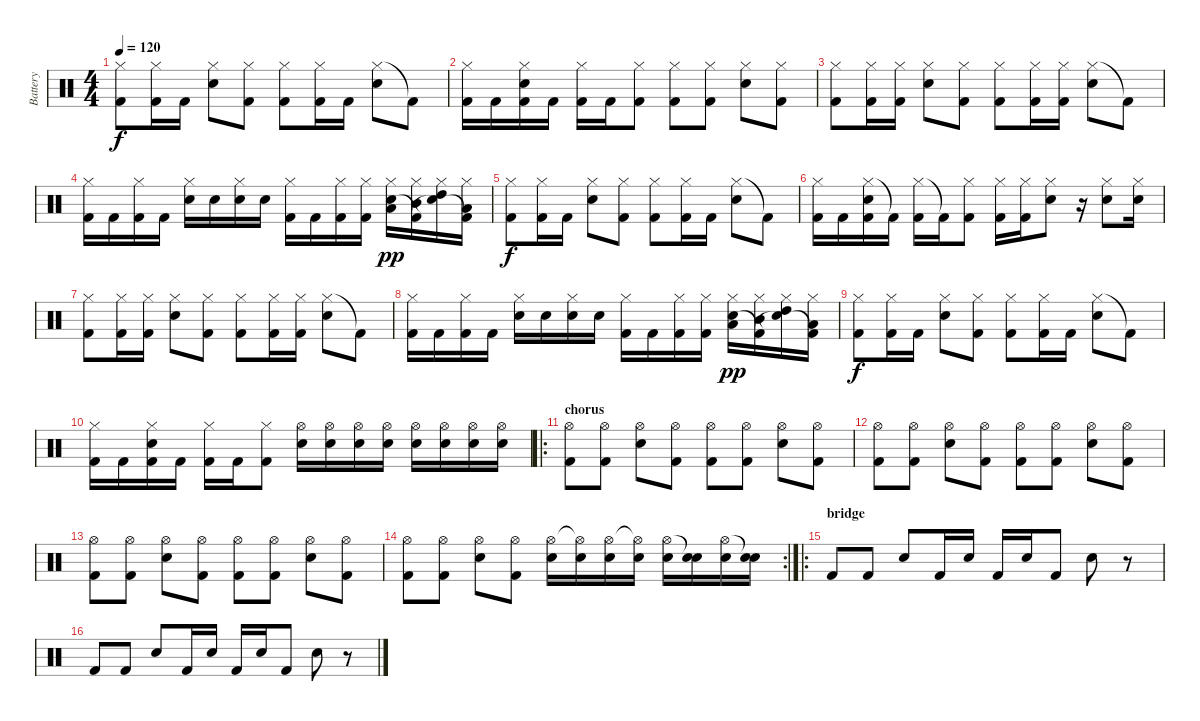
\track ("Battery" "Battery") {instrument percussion}
\staff {score}
\articulation defaults
\ts (4 4)
\tempo 120
\clef neutral
\ks c
("Hi-Hat (closed)" "Kick (hit) 2").8{dy f} ("Hi-Hat (closed)" "Kick (hit) 2").16 "Kick (hit) 2".16 ("Hi-Hat (closed)" "Electric Snare (hit)").8 ("Hi-Hat (closed)" "Kick (hit) 2").8 ("Hi-Hat (closed)" "Kick (hit) 2").8 ("Hi-Hat (closed)" "Kick (hit) 2").16 "Kick (hit) 2".16 ("Hi-Hat (closed)" "Electric Snare (hit)").8 "Kick (hit) 2"{t}.8 |
("Hi-Hat (closed)" "Kick (hit) 2").16 "Kick (hit) 2".16 ("Hi-Hat (closed)" "Electric Snare (hit)" "Kick (hit) 2").16 "Kick (hit) 2".16 ("Hi-Hat (closed)" "Kick (hit) 2").16 "Kick (hit) 2".16 ("Hi-Hat (closed)" "Kick (hit) 2").8 ("Hi-Hat (closed)" "Kick (hit) 2").8 ("Hi-Hat (closed)" "Kick (hit) 2").8 ("Hi-Hat (closed)" "Electric Snare (hit)").8 ("Hi-Hat (closed)" "Kick (hit) 2").8 |
("Hi-Hat (closed)" "Kick (hit) 2").8 ("Hi-Hat (closed)" "Kick (hit) 2").16 ("Hi-Hat (closed)" "Kick (hit) 2").16 ("Hi-Hat (closed)" "Electric Snare (hit)").8 ("Hi-Hat (closed)" "Kick (hit) 2").8 ("Hi-Hat (closed)" "Kick (hit) 2").8 ("Hi-Hat (closed)" "Kick (hit) 2").16 ("Hi-Hat (closed)" "Kick (hit) 2").16 ("Hi-Hat (closed)" "Electric Snare (hit)").8 "Kick (hit) 2"{t}.8 |
("Hi-Hat (closed)" "Kick (hit) 2").16 "Kick (hit) 2".16 ("Hi-Hat (closed)" "Kick (hit) 2").16 "Kick (hit) 2".16 ("Hi-Hat (closed)" "Electric Snare (hit)").16 "Electric Snare (hit)".16 ("Hi-Hat (closed)" "Electric Snare (hit)").16 "Electric Snare (hit)".16 ("Hi-Hat (closed)" "Kick (hit) 2").16 "Kick (hit) 2".16 ("Hi-Hat (closed)" "Kick (hit) 2").16 ("Hi-Hat (closed)" "Kick (hit) 2").16 ("Hi-Hat (closed)" "Low Tom (hit)" "Electric Snare (hit)").16{dy pp} ("Hi-Hat (closed)" "Mid Tom (hit)" "Kick (hit) 2"{t}).16 ("Hi-Hat (closed)" "High Tom (hit)" "Snare (hit)"{t}).16 ("Hi-Hat (closed)" "Low Tom (hit)" "Kick (hit) 2"{t}).16 |
("Hi-Hat (closed)" "Kick (hit) 2").8{dy f} ("Hi-Hat (closed)" "Kick (hit) 2").16 "Kick (hit) 2".16 ("Hi-Hat (closed)" "Electric Snare (hit)").8 ("Hi-Hat (closed)" "Kick (hit) 2").8 ("Hi-Hat (closed)" "Kick (hit) 2").8 ("Hi-Hat (closed)" "Kick (hit) 2").16 "Kick (hit) 2".16 ("Hi-Hat (closed)" "Electric Snare (hit)").8 "Kick (hit) 2"{t}.8 |
("Hi-Hat (closed)" "Kick (hit) 2").16 "Kick (hit) 2".16 ("Hi-Hat (closed)" "Electric Snare (hit)" "Kick (hit) 2").16 "Kick (hit) 2"{t}.16 ("Hi-Hat (closed)" "Kick (hit) 2").16 "Kick (hit) 2"{t}.16 ("Hi-Hat (closed)" "Kick (hit) 2").8 ("Hi-Hat (closed)" "Kick (hit) 2").16 ("Hi-Hat (closed)" "Kick (hit) 2").16 ("Hi-Hat (closed)" "Electric Snare (hit)").8 r.16 ("Hi-Hat (closed)" "Electric Snare (hit)").8 ("Hi-Hat (closed)" "Electric Snare (hit)").16 |
("Hi-Hat (closed)" "Kick (hit) 2").8 ("Hi-Hat (closed)" "Kick (hit) 2").16 ("Hi-Hat (closed)" "Kick (hit) 2").16 ("Hi-Hat (closed)" "Electric Snare (hit)").8 ("Hi-Hat (closed)" "Kick (hit) 2").8 ("Hi-Hat (closed)" "Kick (hit) 2").8 ("Hi-Hat (closed)" "Kick (hit) 2").16 ("Hi-Hat (closed)" "Kick (hit) 2").16 ("Hi-Hat (closed)" "Electric Snare (hit)").8 "Kick (hit) 2"{t}.8 |
("Hi-Hat (closed)" "Kick (hit) 2").16 "Kick (hit) 2".16 ("Hi-Hat (closed)" "Kick (hit) 2").16 "Kick (hit) 2".16 ("Hi-Hat (closed)" "Electric Snare (hit)").16 "Electric Snare (hit)".16 ("Hi-Hat (closed)" "Electric Snare (hit)").16 "Electric Snare (hit)".16 ("Hi-Hat (closed)" "Kick (hit) 2").16 "Kick (hit) 2".16 ("Hi-Hat (closed)" "Kick (hit) 2").16 ("Hi-Hat (closed)" "Kick (hit) 2").16 ("Hi-Hat (closed)" "Low Tom (hit)" "Electric Snare (hit)").16{dy pp} ("Hi-Hat (closed)" "Mid Tom (hit)" "Kick (hit) 2"{t}).16 ("Hi-Hat (closed)" "High Tom (hit)" "Snare (hit)"{t}).16 ("Hi-Hat (closed)" "Low Tom (hit)" "Kick (hit) 2"{t}).16 |
("Hi-Hat (closed)" "Kick (hit) 2").8{dy f} ("Hi-Hat (closed)" "Kick (hit) 2").16 "Kick (hit) 2".16 ("Hi-Hat (closed)" "Electric Snare (hit)").8 ("Hi-Hat (closed)" "Kick (hit) 2").8 ("Hi-Hat (closed)" "Kick (hit) 2").8 ("Hi-Hat (closed)" "Kick (hit) 2").16 "Kick (hit) 2".16 ("Hi-Hat (closed)" "Electric Snare (hit)").8 "Kick (hit) 2"{t}.8 |
("Hi-Hat (closed)" "Kick (hit) 2").16 "Kick (hit) 2".16 ("Hi-Hat (closed)" "Electric Snare (hit)" "Kick (hit) 2").16 "Kick (hit) 2".16 ("Hi-Hat (closed)" "Kick (hit) 2").16 "Kick (hit) 2".16 ("Hi-Hat (closed)" "Kick (hit) 2").8 ("Hi-Hat (open)" "Electric Snare (hit)").16 ("Hi-Hat (open)" "Electric Snare (hit)").16 ("Hi-Hat (open)" "Electric Snare (hit)").16 ("Hi-Hat (open)" "Electric Snare (hit)").16 ("Hi-Hat (open)" "Electric Snare (hit)").16 ("Hi-Hat (open)" "Electric Snare (hit)").16 ("Hi-Hat (open)" "Electric Snare (hit)").16 ("Hi-Hat (open)" "Electric Snare (hit)").16 |
\ro
\section ("" "chorus")
("Hi-Hat (open)" "Kick (hit) 2").8 ("Hi-Hat (open)" "Kick (hit) 2").8 ("Hi-Hat (open)" "Electric Snare (hit)").8 ("Hi-Hat (open)" "Kick (hit) 2").8 ("Hi-Hat (open)" "Kick (hit) 2").8 ("Hi-Hat (open)" "Kick (hit) 2").8 ("Hi-Hat (open)" "Electric Snare (hit)").8 ("Hi-Hat (open)" "Kick (hit) 2").8 |
("Hi-Hat (open)" "Kick (hit) 2").8 ("Hi-Hat (open)" "Kick (hit) 2").8 ("Hi-Hat (open)" "Electric Snare (hit)").8 ("Hi-Hat (open)" "Kick (hit) 2").8 ("Hi-Hat (open)" "Kick (hit) 2").8 ("Hi-Hat (open)" "Kick (hit) 2").8 ("Hi-Hat (open)" "Electric Snare (hit)").8 ("Hi-Hat (open)" "Kick (hit) 2").8 |
("Hi-Hat (open)" "Kick (hit) 2").8 ("Hi-Hat (open)" "Kick (hit) 2").8 ("Hi-Hat (open)" "Electric Snare (hit)").8 ("Hi-Hat (open)" "Kick (hit) 2").8 ("Hi-Hat (open)" "Kick (hit) 2").8 ("Hi-Hat (open)" "Kick (hit) 2").8 ("Hi-Hat (open)" "Electric Snare (hit)").8 ("Hi-Hat (open)" "Kick (hit) 2").8 |
\rc 2
("Hi-Hat (open)" "Kick (hit) 2").8 ("Hi-Hat (open)" "Kick (hit) 2").8 ("Hi-Hat (open)" "Electric Snare (hit)").8 ("Hi-Hat (open)" "Kick (hit) 2").8 ("Hi-Hat (open)" "Electric Snare (hit)").16 ("Hi-Hat (open)"{t} "Electric Snare (hit)").16 ("Hi-Hat (open)" "Electric Snare (hit)").16 ("Hi-Hat (open)"{t} "Electric Snare (hit)").16 ("Hi-Hat (open)" "Electric Snare (hit)").16 ("Snare (hit)"{t} "Electric Snare (hit)").16 ("Hi-Hat (open)" "Electric Snare (hit)").16 ("Snare (hit)"{t} "Electric Snare (hit)").16 |
\ro
\section ("" "bridge")
"Kick (hit) 2".8 "Kick (hit) 2".8 "Electric Snare (hit)".8 "Kick (hit) 2".16 "Electric Snare (hit)".16 "Kick (hit) 2".16 "Electric Snare (hit)".16 "Kick (hit) 2".8 "Electric Snare (hit)".8 r.8 |
"Kick (hit) 2".8 "Kick (hit) 2".8 "Electric Snare (hit)".8 "Kick (hit) 2".16 "Electric Snare (hit)".16 "Kick (hit) 2".16 "Electric Snare (hit)".16 "Kick (hit) 2".8 "Electric Snare (hit)".8 r.8
